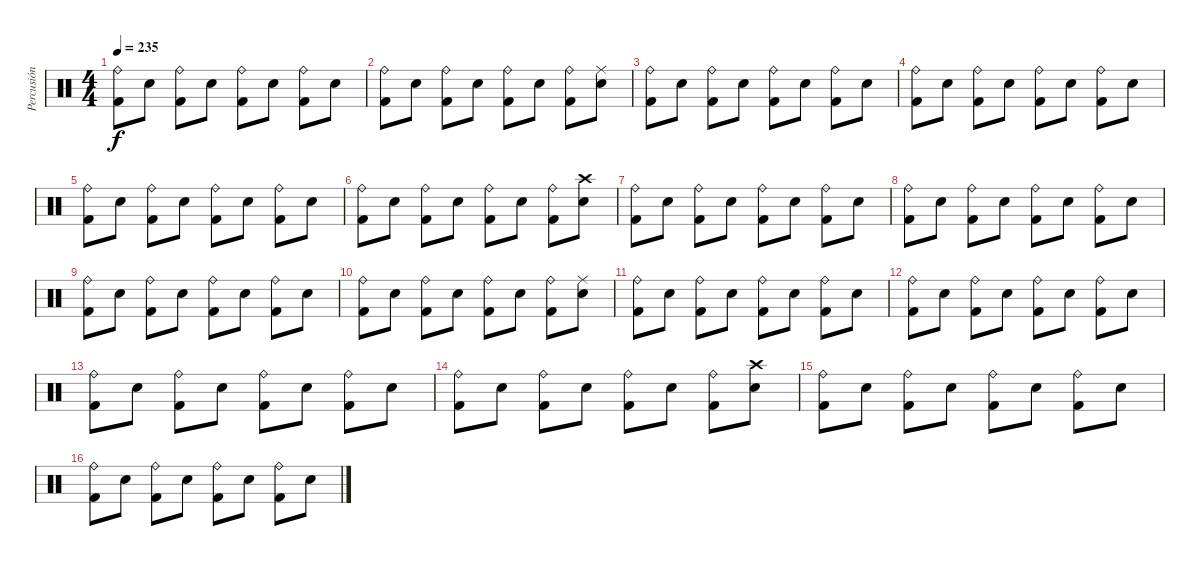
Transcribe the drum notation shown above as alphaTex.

\track ("Percusión" "Percusión") {instrument percussion}
\staff {score}
\articulation defaults
\ts (4 4)
\tempo 235
\clef neutral
\ks c
("Ride (bell)" "Kick (hit) 2").8{dy f} "Electric Snare (hit)".8 ("Ride (bell)" "Kick (hit) 2").8 "Electric Snare (hit)".8 ("Ride (bell)" "Kick (hit) 2").8 "Electric Snare (hit)".8 ("Ride (bell)" "Kick (hit) 2").8 "Electric Snare (hit)".8 |
("Ride (bell)" "Kick (hit) 2").8 "Electric Snare (hit)".8 ("Ride (bell)" "Kick (hit) 2").8 "Electric Snare (hit)".8 ("Ride (bell)" "Kick (hit) 2").8 "Electric Snare (hit)".8 ("Ride (bell)" "Kick (hit) 2").8 ("Electric Snare (hit)" "Ride (middle)").8 |
("Ride (bell)" "Kick (hit) 2").8 "Electric Snare (hit)".8 ("Ride (bell)" "Kick (hit) 2").8 "Electric Snare (hit)".8 ("Ride (bell)" "Kick (hit) 2").8 "Electric Snare (hit)".8 ("Ride (bell)" "Kick (hit) 2").8 "Electric Snare (hit)".8 |
("Ride (bell)" "Kick (hit) 2").8 "Electric Snare (hit)".8 ("Ride (bell)" "Kick (hit) 2").8 "Electric Snare (hit)".8 ("Ride (bell)" "Kick (hit) 2").8 "Electric Snare (hit)".8 ("Ride (bell)" "Kick (hit) 2").8 "Electric Snare (hit)".8 |
("Ride (bell)" "Kick (hit) 2").8 "Electric Snare (hit)".8 ("Ride (bell)" "Kick (hit) 2").8 "Electric Snare (hit)".8 ("Ride (bell)" "Kick (hit) 2").8 "Electric Snare (hit)".8 ("Ride (bell)" "Kick (hit) 2").8 "Electric Snare (hit)".8 |
("Ride (bell)" "Kick (hit) 2").8 "Electric Snare (hit)".8 ("Ride (bell)" "Kick (hit) 2").8 "Electric Snare (hit)".8 ("Ride (bell)" "Kick (hit) 2").8 "Electric Snare (hit)".8 ("Ride (bell)" "Kick (hit) 2").8 ("Electric Snare (hit)" "Crash high (hit)").8 |
("Ride (bell)" "Kick (hit) 2").8 "Electric Snare (hit)".8 ("Ride (bell)" "Kick (hit) 2").8 "Electric Snare (hit)".8 ("Ride (bell)" "Kick (hit) 2").8 "Electric Snare (hit)".8 ("Ride (bell)" "Kick (hit) 2").8 "Electric Snare (hit)".8 |
("Ride (bell)" "Kick (hit) 2").8 "Electric Snare (hit)".8 ("Ride (bell)" "Kick (hit) 2").8 "Electric Snare (hit)".8 ("Ride (bell)" "Kick (hit) 2").8 "Electric Snare (hit)".8 ("Ride (bell)" "Kick (hit) 2").8 "Electric Snare (hit)".8 |
("Ride (bell)" "Kick (hit) 2").8 "Electric Snare (hit)".8 ("Ride (bell)" "Kick (hit) 2").8 "Electric Snare (hit)".8 ("Ride (bell)" "Kick (hit) 2").8 "Electric Snare (hit)".8 ("Ride (bell)" "Kick (hit) 2").8 "Electric Snare (hit)".8 |
("Ride (bell)" "Kick (hit) 2").8 "Electric Snare (hit)".8 ("Ride (bell)" "Kick (hit) 2").8 "Electric Snare (hit)".8 ("Ride (bell)" "Kick (hit) 2").8 "Electric Snare (hit)".8 ("Ride (bell)" "Kick (hit) 2").8 ("Electric Snare (hit)" "Ride (middle)").8 |
("Ride (bell)" "Kick (hit) 2").8 "Electric Snare (hit)".8 ("Ride (bell)" "Kick (hit) 2").8 "Electric Snare (hit)".8 ("Ride (bell)" "Kick (hit) 2").8 "Electric Snare (hit)".8 ("Ride (bell)" "Kick (hit) 2").8 "Electric Snare (hit)".8 |
("Ride (bell)" "Kick (hit) 2").8 "Electric Snare (hit)".8 ("Ride (bell)" "Kick (hit) 2").8 "Electric Snare (hit)".8 ("Ride (bell)" "Kick (hit) 2").8 "Electric Snare (hit)".8 ("Ride (bell)" "Kick (hit) 2").8 "Electric Snare (hit)".8 |
("Ride (bell)" "Kick (hit) 2").8 "Electric Snare (hit)".8 ("Ride (bell)" "Kick (hit) 2").8 "Electric Snare (hit)".8 ("Ride (bell)" "Kick (hit) 2").8 "Electric Snare (hit)".8 ("Ride (bell)" "Kick (hit) 2").8 "Electric Snare (hit)".8 |
("Ride (bell)" "Kick (hit) 2").8 "Electric Snare (hit)".8 ("Ride (bell)" "Kick (hit) 2").8 "Electric Snare (hit)".8 ("Ride (bell)" "Kick (hit) 2").8 "Electric Snare (hit)".8 ("Ride (bell)" "Kick (hit) 2").8 ("Electric Snare (hit)" "Crash high (hit)").8 |
("Ride (bell)" "Kick (hit) 2").8 "Electric Snare (hit)".8 ("Ride (bell)" "Kick (hit) 2").8 "Electric Snare (hit)".8 ("Ride (bell)" "Kick (hit) 2").8 "Electric Snare (hit)".8 ("Ride (bell)" "Kick (hit) 2").8 "Electric Snare (hit)".8 |
("Ride (bell)" "Kick (hit) 2").8 "Electric Snare (hit)".8 ("Ride (bell)" "Kick (hit) 2").8 "Electric Snare (hit)".8 ("Ride (bell)" "Kick (hit) 2").8 "Electric Snare (hit)".8 ("Ride (bell)" "Kick (hit) 2").8 "Electric Snare (hit)".8
